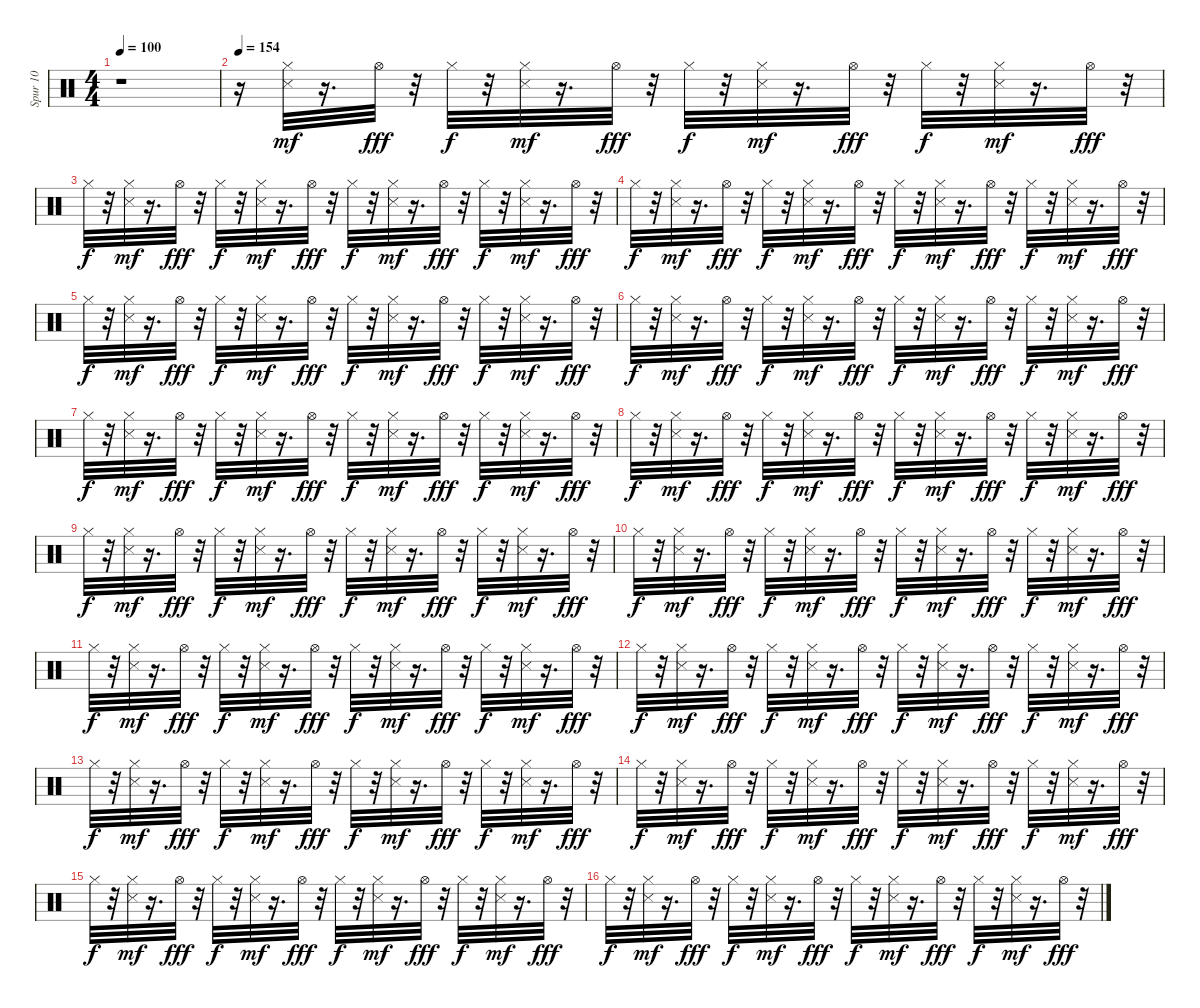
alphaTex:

\track ("Spur 10" "Spur 10") {instrument percussion}
\staff {score}
\articulation defaults
\ts (4 4)
\tempo 100
\clef neutral
\ks c
r.1{dy mf} |
\tempo 154
r.16 ("Metronome (hit)" "Hi-Hat (closed)").32 r.16{d} "Hi-Hat (open)".32{dy fff} r.32 "Hi-Hat (closed)".32{dy f} r.32 ("Metronome (hit)" "Hi-Hat (closed)").32{dy mf} r.16{d} "Hi-Hat (open)".32{dy fff} r.32 "Hi-Hat (closed)".32{dy f} r.32 ("Metronome (hit)" "Hi-Hat (closed)").32{dy mf} r.16{d} "Hi-Hat (open)".32{dy fff} r.32 "Hi-Hat (closed)".32{dy f} r.32 ("Metronome (hit)" "Hi-Hat (closed)").32{dy mf} r.16{d} "Hi-Hat (open)".32{dy fff} r.32 |
"Hi-Hat (closed)".32{dy f} r.32 ("Metronome (hit)" "Hi-Hat (closed)").32{dy mf} r.16{d} "Hi-Hat (open)".32{dy fff} r.32 "Hi-Hat (closed)".32{dy f} r.32 ("Metronome (hit)" "Hi-Hat (closed)").32{dy mf} r.16{d} "Hi-Hat (open)".32{dy fff} r.32 "Hi-Hat (closed)".32{dy f} r.32 ("Metronome (hit)" "Hi-Hat (closed)").32{dy mf} r.16{d} "Hi-Hat (open)".32{dy fff} r.32 "Hi-Hat (closed)".32{dy f} r.32 ("Metronome (hit)" "Hi-Hat (closed)").32{dy mf} r.16{d} "Hi-Hat (open)".32{dy fff} r.32 |
"Hi-Hat (closed)".32{dy f} r.32 ("Metronome (hit)" "Hi-Hat (closed)").32{dy mf} r.16{d} "Hi-Hat (open)".32{dy fff} r.32 "Hi-Hat (closed)".32{dy f} r.32 ("Metronome (hit)" "Hi-Hat (closed)").32{dy mf} r.16{d} "Hi-Hat (open)".32{dy fff} r.32 "Hi-Hat (closed)".32{dy f} r.32 ("Metronome (hit)" "Hi-Hat (closed)").32{dy mf} r.16{d} "Hi-Hat (open)".32{dy fff} r.32 "Hi-Hat (closed)".32{dy f} r.32 ("Metronome (hit)" "Hi-Hat (closed)").32{dy mf} r.16{d} "Hi-Hat (open)".32{dy fff} r.32 |
"Hi-Hat (closed)".32{dy f} r.32 ("Metronome (hit)" "Hi-Hat (closed)").32{dy mf} r.16{d} "Hi-Hat (open)".32{dy fff} r.32 "Hi-Hat (closed)".32{dy f} r.32 ("Metronome (hit)" "Hi-Hat (closed)").32{dy mf} r.16{d} "Hi-Hat (open)".32{dy fff} r.32 "Hi-Hat (closed)".32{dy f} r.32 ("Metronome (hit)" "Hi-Hat (closed)").32{dy mf} r.16{d} "Hi-Hat (open)".32{dy fff} r.32 "Hi-Hat (closed)".32{dy f} r.32 ("Metronome (hit)" "Hi-Hat (closed)").32{dy mf} r.16{d} "Hi-Hat (open)".32{dy fff} r.32 |
"Hi-Hat (closed)".32{dy f} r.32 ("Metronome (hit)" "Hi-Hat (closed)").32{dy mf} r.16{d} "Hi-Hat (open)".32{dy fff} r.32 "Hi-Hat (closed)".32{dy f} r.32 ("Metronome (hit)" "Hi-Hat (closed)").32{dy mf} r.16{d} "Hi-Hat (open)".32{dy fff} r.32 "Hi-Hat (closed)".32{dy f} r.32 ("Metronome (hit)" "Hi-Hat (closed)").32{dy mf} r.16{d} "Hi-Hat (open)".32{dy fff} r.32 "Hi-Hat (closed)".32{dy f} r.32 ("Metronome (hit)" "Hi-Hat (closed)").32{dy mf} r.16{d} "Hi-Hat (open)".32{dy fff} r.32 |
"Hi-Hat (closed)".32{dy f} r.32 ("Metronome (hit)" "Hi-Hat (closed)").32{dy mf} r.16{d} "Hi-Hat (open)".32{dy fff} r.32 "Hi-Hat (closed)".32{dy f} r.32 ("Metronome (hit)" "Hi-Hat (closed)").32{dy mf} r.16{d} "Hi-Hat (open)".32{dy fff} r.32 "Hi-Hat (closed)".32{dy f} r.32 ("Metronome (hit)" "Hi-Hat (closed)").32{dy mf} r.16{d} "Hi-Hat (open)".32{dy fff} r.32 "Hi-Hat (closed)".32{dy f} r.32 ("Metronome (hit)" "Hi-Hat (closed)").32{dy mf} r.16{d} "Hi-Hat (open)".32{dy fff} r.32 |
"Hi-Hat (closed)".32{dy f} r.32 ("Metronome (hit)" "Hi-Hat (closed)").32{dy mf} r.16{d} "Hi-Hat (open)".32{dy fff} r.32 "Hi-Hat (closed)".32{dy f} r.32 ("Metronome (hit)" "Hi-Hat (closed)").32{dy mf} r.16{d} "Hi-Hat (open)".32{dy fff} r.32 "Hi-Hat (closed)".32{dy f} r.32 ("Metronome (hit)" "Hi-Hat (closed)").32{dy mf} r.16{d} "Hi-Hat (open)".32{dy fff} r.32 "Hi-Hat (closed)".32{dy f} r.32 ("Metronome (hit)" "Hi-Hat (closed)").32{dy mf} r.16{d} "Hi-Hat (open)".32{dy fff} r.32 |
"Hi-Hat (closed)".32{dy f} r.32 ("Metronome (hit)" "Hi-Hat (closed)").32{dy mf} r.16{d} "Hi-Hat (open)".32{dy fff} r.32 "Hi-Hat (closed)".32{dy f} r.32 ("Metronome (hit)" "Hi-Hat (closed)").32{dy mf} r.16{d} "Hi-Hat (open)".32{dy fff} r.32 "Hi-Hat (closed)".32{dy f} r.32 ("Metronome (hit)" "Hi-Hat (closed)").32{dy mf} r.16{d} "Hi-Hat (open)".32{dy fff} r.32 "Hi-Hat (closed)".32{dy f} r.32 ("Metronome (hit)" "Hi-Hat (closed)").32{dy mf} r.16{d} "Hi-Hat (open)".32{dy fff} r.32 |
"Hi-Hat (closed)".32{dy f} r.32 ("Metronome (hit)" "Hi-Hat (closed)").32{dy mf} r.16{d} "Hi-Hat (open)".32{dy fff} r.32 "Hi-Hat (closed)".32{dy f} r.32 ("Metronome (hit)" "Hi-Hat (closed)").32{dy mf} r.16{d} "Hi-Hat (open)".32{dy fff} r.32 "Hi-Hat (closed)".32{dy f} r.32 ("Metronome (hit)" "Hi-Hat (closed)").32{dy mf} r.16{d} "Hi-Hat (open)".32{dy fff} r.32 "Hi-Hat (closed)".32{dy f} r.32 ("Metronome (hit)" "Hi-Hat (closed)").32{dy mf} r.16{d} "Hi-Hat (open)".32{dy fff} r.32 |
"Hi-Hat (closed)".32{dy f} r.32 ("Metronome (hit)" "Hi-Hat (closed)").32{dy mf} r.16{d} "Hi-Hat (open)".32{dy fff} r.32 "Hi-Hat (closed)".32{dy f} r.32 ("Metronome (hit)" "Hi-Hat (closed)").32{dy mf} r.16{d} "Hi-Hat (open)".32{dy fff} r.32 "Hi-Hat (closed)".32{dy f} r.32 ("Metronome (hit)" "Hi-Hat (closed)").32{dy mf} r.16{d} "Hi-Hat (open)".32{dy fff} r.32 "Hi-Hat (closed)".32{dy f} r.32 ("Metronome (hit)" "Hi-Hat (closed)").32{dy mf} r.16{d} "Hi-Hat (open)".32{dy fff} r.32 |
"Hi-Hat (closed)".32{dy f} r.32 ("Metronome (hit)" "Hi-Hat (closed)").32{dy mf} r.16{d} "Hi-Hat (open)".32{dy fff} r.32 "Hi-Hat (closed)".32{dy f} r.32 ("Metronome (hit)" "Hi-Hat (closed)").32{dy mf} r.16{d} "Hi-Hat (open)".32{dy fff} r.32 "Hi-Hat (closed)".32{dy f} r.32 ("Metronome (hit)" "Hi-Hat (closed)").32{dy mf} r.16{d} "Hi-Hat (open)".32{dy fff} r.32 "Hi-Hat (closed)".32{dy f} r.32 ("Metronome (hit)" "Hi-Hat (closed)").32{dy mf} r.16{d} "Hi-Hat (open)".32{dy fff} r.32 |
"Hi-Hat (closed)".32{dy f} r.32 ("Metronome (hit)" "Hi-Hat (closed)").32{dy mf} r.16{d} "Hi-Hat (open)".32{dy fff} r.32 "Hi-Hat (closed)".32{dy f} r.32 ("Metronome (hit)" "Hi-Hat (closed)").32{dy mf} r.16{d} "Hi-Hat (open)".32{dy fff} r.32 "Hi-Hat (closed)".32{dy f} r.32 ("Metronome (hit)" "Hi-Hat (closed)").32{dy mf} r.16{d} "Hi-Hat (open)".32{dy fff} r.32 "Hi-Hat (closed)".32{dy f} r.32 ("Metronome (hit)" "Hi-Hat (closed)").32{dy mf} r.16{d} "Hi-Hat (open)".32{dy fff} r.32 |
"Hi-Hat (closed)".32{dy f} r.32 ("Metronome (hit)" "Hi-Hat (closed)").32{dy mf} r.16{d} "Hi-Hat (open)".32{dy fff} r.32 "Hi-Hat (closed)".32{dy f} r.32 ("Metronome (hit)" "Hi-Hat (closed)").32{dy mf} r.16{d} "Hi-Hat (open)".32{dy fff} r.32 "Hi-Hat (closed)".32{dy f} r.32 ("Metronome (hit)" "Hi-Hat (closed)").32{dy mf} r.16{d} "Hi-Hat (open)".32{dy fff} r.32 "Hi-Hat (closed)".32{dy f} r.32 ("Metronome (hit)" "Hi-Hat (closed)").32{dy mf} r.16{d} "Hi-Hat (open)".32{dy fff} r.32 |
"Hi-Hat (closed)".32{dy f} r.32 ("Metronome (hit)" "Hi-Hat (closed)").32{dy mf} r.16{d} "Hi-Hat (open)".32{dy fff} r.32 "Hi-Hat (closed)".32{dy f} r.32 ("Metronome (hit)" "Hi-Hat (closed)").32{dy mf} r.16{d} "Hi-Hat (open)".32{dy fff} r.32 "Hi-Hat (closed)".32{dy f} r.32 ("Metronome (hit)" "Hi-Hat (closed)").32{dy mf} r.16{d} "Hi-Hat (open)".32{dy fff} r.32 "Hi-Hat (closed)".32{dy f} r.32 ("Metronome (hit)" "Hi-Hat (closed)").32{dy mf} r.16{d} "Hi-Hat (open)".32{dy fff} r.32 |
"Hi-Hat (closed)".32{dy f} r.32 ("Metronome (hit)" "Hi-Hat (closed)").32{dy mf} r.16{d} "Hi-Hat (open)".32{dy fff} r.32 "Hi-Hat (closed)".32{dy f} r.32 ("Metronome (hit)" "Hi-Hat (closed)").32{dy mf} r.16{d} "Hi-Hat (open)".32{dy fff} r.32 "Hi-Hat (closed)".32{dy f} r.32 ("Metronome (hit)" "Hi-Hat (closed)").32{dy mf} r.16{d} "Hi-Hat (open)".32{dy fff} r.32 "Hi-Hat (closed)".32{dy f} r.32 ("Metronome (hit)" "Hi-Hat (closed)").32{dy mf} r.16{d} "Hi-Hat (open)".32{dy fff} r.32
